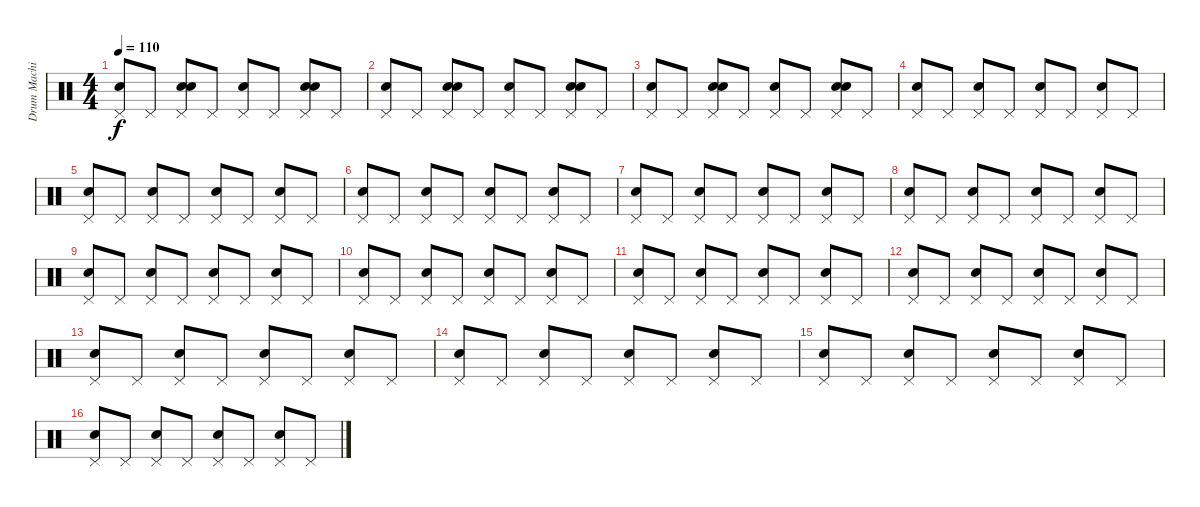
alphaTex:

\track ("Drum Machine" "Drum Machi") {instrument percussion}
\staff {score}
\articulation defaults
\ts (4 4)
\tempo 110
\clef neutral
\ks c
("Pedal Hi-Hat (hit)" "Snare (hit) 2").8{dy f} "Pedal Hi-Hat (hit)".8 ("Pedal Hi-Hat (hit)" "Snare (hit) 2" "Hand Clap (hit)").8 "Pedal Hi-Hat (hit)".8 ("Pedal Hi-Hat (hit)" "Snare (hit) 2").8 "Pedal Hi-Hat (hit)".8 ("Pedal Hi-Hat (hit)" "Snare (hit) 2" "Hand Clap (hit)").8 "Pedal Hi-Hat (hit)".8 |
("Pedal Hi-Hat (hit)" "Snare (hit) 2").8 "Pedal Hi-Hat (hit)".8 ("Pedal Hi-Hat (hit)" "Snare (hit) 2" "Hand Clap (hit)").8 "Pedal Hi-Hat (hit)".8 ("Pedal Hi-Hat (hit)" "Snare (hit) 2").8 "Pedal Hi-Hat (hit)".8 ("Pedal Hi-Hat (hit)" "Snare (hit) 2" "Hand Clap (hit)").8 "Pedal Hi-Hat (hit)".8 |
("Pedal Hi-Hat (hit)" "Snare (hit) 2").8 "Pedal Hi-Hat (hit)".8 ("Pedal Hi-Hat (hit)" "Snare (hit) 2" "Hand Clap (hit)").8 "Pedal Hi-Hat (hit)".8 ("Pedal Hi-Hat (hit)" "Snare (hit) 2").8 "Pedal Hi-Hat (hit)".8 ("Pedal Hi-Hat (hit)" "Snare (hit) 2" "Hand Clap (hit)").8 "Pedal Hi-Hat (hit)".8 |
("Pedal Hi-Hat (hit)" "Snare (hit) 2").8 "Pedal Hi-Hat (hit)".8 ("Pedal Hi-Hat (hit)" "Snare (hit) 2").8 "Pedal Hi-Hat (hit)".8 ("Pedal Hi-Hat (hit)" "Snare (hit) 2").8 "Pedal Hi-Hat (hit)".8 ("Pedal Hi-Hat (hit)" "Snare (hit) 2").8 "Pedal Hi-Hat (hit)".8 |
("Pedal Hi-Hat (hit)" "Snare (hit) 2").8 "Pedal Hi-Hat (hit)".8 ("Pedal Hi-Hat (hit)" "Snare (hit) 2").8 "Pedal Hi-Hat (hit)".8 ("Pedal Hi-Hat (hit)" "Snare (hit) 2").8 "Pedal Hi-Hat (hit)".8 ("Pedal Hi-Hat (hit)" "Snare (hit) 2").8 "Pedal Hi-Hat (hit)".8 |
("Pedal Hi-Hat (hit)" "Snare (hit) 2").8 "Pedal Hi-Hat (hit)".8 ("Pedal Hi-Hat (hit)" "Snare (hit) 2").8 "Pedal Hi-Hat (hit)".8 ("Pedal Hi-Hat (hit)" "Snare (hit) 2").8 "Pedal Hi-Hat (hit)".8 ("Pedal Hi-Hat (hit)" "Snare (hit) 2").8 "Pedal Hi-Hat (hit)".8 |
("Pedal Hi-Hat (hit)" "Snare (hit) 2").8 "Pedal Hi-Hat (hit)".8 ("Pedal Hi-Hat (hit)" "Snare (hit) 2").8 "Pedal Hi-Hat (hit)".8 ("Pedal Hi-Hat (hit)" "Snare (hit) 2").8 "Pedal Hi-Hat (hit)".8 ("Pedal Hi-Hat (hit)" "Snare (hit) 2").8 "Pedal Hi-Hat (hit)".8 |
("Pedal Hi-Hat (hit)" "Snare (hit) 2").8 "Pedal Hi-Hat (hit)".8 ("Pedal Hi-Hat (hit)" "Snare (hit) 2").8 "Pedal Hi-Hat (hit)".8 ("Pedal Hi-Hat (hit)" "Snare (hit) 2").8 "Pedal Hi-Hat (hit)".8 ("Pedal Hi-Hat (hit)" "Snare (hit) 2").8 "Pedal Hi-Hat (hit)".8 |
("Pedal Hi-Hat (hit)" "Snare (hit) 2").8 "Pedal Hi-Hat (hit)".8 ("Pedal Hi-Hat (hit)" "Snare (hit) 2").8 "Pedal Hi-Hat (hit)".8 ("Pedal Hi-Hat (hit)" "Snare (hit) 2").8 "Pedal Hi-Hat (hit)".8 ("Pedal Hi-Hat (hit)" "Snare (hit) 2").8 "Pedal Hi-Hat (hit)".8 |
("Pedal Hi-Hat (hit)" "Snare (hit) 2").8 "Pedal Hi-Hat (hit)".8 ("Pedal Hi-Hat (hit)" "Snare (hit) 2").8 "Pedal Hi-Hat (hit)".8 ("Pedal Hi-Hat (hit)" "Snare (hit) 2").8 "Pedal Hi-Hat (hit)".8 ("Pedal Hi-Hat (hit)" "Snare (hit) 2").8 "Pedal Hi-Hat (hit)".8 |
("Pedal Hi-Hat (hit)" "Snare (hit) 2").8 "Pedal Hi-Hat (hit)".8 ("Pedal Hi-Hat (hit)" "Snare (hit) 2").8 "Pedal Hi-Hat (hit)".8 ("Pedal Hi-Hat (hit)" "Snare (hit) 2").8 "Pedal Hi-Hat (hit)".8 ("Pedal Hi-Hat (hit)" "Snare (hit) 2").8 "Pedal Hi-Hat (hit)".8 |
("Pedal Hi-Hat (hit)" "Snare (hit) 2").8 "Pedal Hi-Hat (hit)".8 ("Pedal Hi-Hat (hit)" "Snare (hit) 2").8 "Pedal Hi-Hat (hit)".8 ("Pedal Hi-Hat (hit)" "Snare (hit) 2").8 "Pedal Hi-Hat (hit)".8 ("Pedal Hi-Hat (hit)" "Snare (hit) 2").8 "Pedal Hi-Hat (hit)".8 |
("Pedal Hi-Hat (hit)" "Snare (hit) 2").8 "Pedal Hi-Hat (hit)".8 ("Pedal Hi-Hat (hit)" "Snare (hit) 2").8 "Pedal Hi-Hat (hit)".8 ("Pedal Hi-Hat (hit)" "Snare (hit) 2").8 "Pedal Hi-Hat (hit)".8 ("Pedal Hi-Hat (hit)" "Snare (hit) 2").8 "Pedal Hi-Hat (hit)".8 |
("Pedal Hi-Hat (hit)" "Snare (hit) 2").8 "Pedal Hi-Hat (hit)".8 ("Pedal Hi-Hat (hit)" "Snare (hit) 2").8 "Pedal Hi-Hat (hit)".8 ("Pedal Hi-Hat (hit)" "Snare (hit) 2").8 "Pedal Hi-Hat (hit)".8 ("Pedal Hi-Hat (hit)" "Snare (hit) 2").8 "Pedal Hi-Hat (hit)".8 |
("Pedal Hi-Hat (hit)" "Snare (hit) 2").8 "Pedal Hi-Hat (hit)".8 ("Pedal Hi-Hat (hit)" "Snare (hit) 2").8 "Pedal Hi-Hat (hit)".8 ("Pedal Hi-Hat (hit)" "Snare (hit) 2").8 "Pedal Hi-Hat (hit)".8 ("Pedal Hi-Hat (hit)" "Snare (hit) 2").8 "Pedal Hi-Hat (hit)".8 |
("Pedal Hi-Hat (hit)" "Snare (hit) 2").8 "Pedal Hi-Hat (hit)".8 ("Pedal Hi-Hat (hit)" "Snare (hit) 2").8 "Pedal Hi-Hat (hit)".8 ("Pedal Hi-Hat (hit)" "Snare (hit) 2").8 "Pedal Hi-Hat (hit)".8 ("Pedal Hi-Hat (hit)" "Snare (hit) 2").8 "Pedal Hi-Hat (hit)".8
